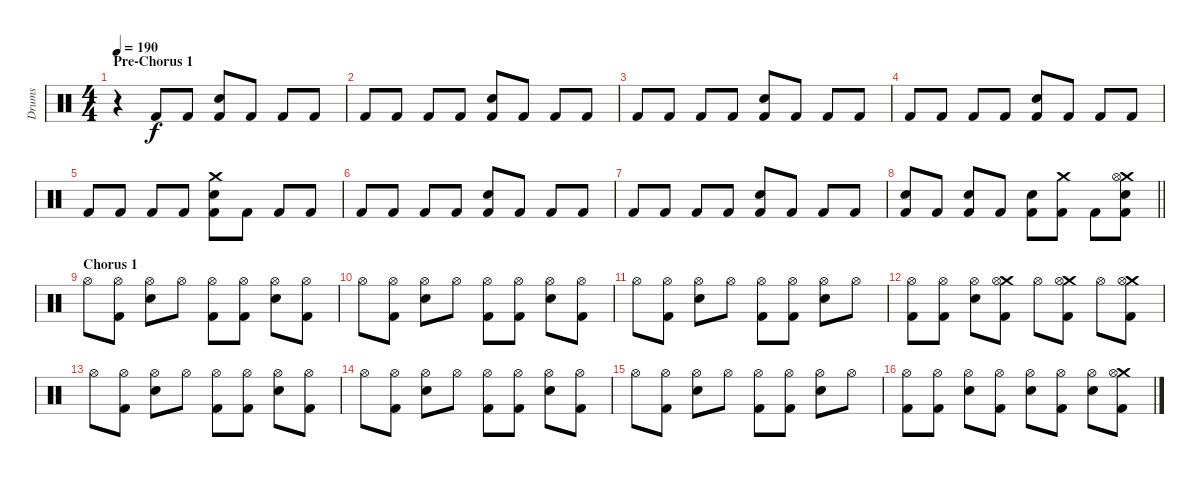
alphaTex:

\track ("Drums" "Drums") {instrument percussion}
\staff {score}
\articulation defaults
\ts (4 4)
\section ("" "Pre-Chorus 1")
\tempo 190
\clef neutral
\ks c
r.4{dy f} "Kick (hit) 2".8 "Kick (hit) 2".8 ("Kick (hit) 2" "Electric Snare (hit)").8 "Kick (hit) 2".8 "Kick (hit) 2".8 "Kick (hit) 2".8 |
"Kick (hit) 2".8 "Kick (hit) 2".8 "Kick (hit) 2".8 "Kick (hit) 2".8 ("Kick (hit) 2" "Electric Snare (hit)").8 "Kick (hit) 2".8 "Kick (hit) 2".8 "Kick (hit) 2".8 |
"Kick (hit) 2".8 "Kick (hit) 2".8 "Kick (hit) 2".8 "Kick (hit) 2".8 ("Kick (hit) 2" "Electric Snare (hit)").8 "Kick (hit) 2".8 "Kick (hit) 2".8 "Kick (hit) 2".8 |
"Kick (hit) 2".8 "Kick (hit) 2".8 "Kick (hit) 2".8 "Kick (hit) 2".8 ("Kick (hit) 2" "Electric Snare (hit)").8 "Kick (hit) 2".8 "Kick (hit) 2".8 "Kick (hit) 2".8 |
"Kick (hit) 2".8 "Kick (hit) 2".8 "Kick (hit) 2".8 "Kick (hit) 2".8 ("Crash medium (hit)" "Kick (hit) 2" "Electric Snare (hit)").8 "Kick (hit) 2".8 "Kick (hit) 2".8 "Kick (hit) 2".8 |
"Kick (hit) 2".8 "Kick (hit) 2".8 "Kick (hit) 2".8 "Kick (hit) 2".8 ("Kick (hit) 2" "Electric Snare (hit)").8 "Kick (hit) 2".8 "Kick (hit) 2".8 "Kick (hit) 2".8 |
"Kick (hit) 2".8 "Kick (hit) 2".8 "Kick (hit) 2".8 "Kick (hit) 2".8 ("Kick (hit) 2" "Electric Snare (hit)").8 "Kick (hit) 2".8 "Kick (hit) 2".8 "Kick (hit) 2".8 |
\barLineRight lightlight
("Kick (hit) 2" "Electric Snare (hit)").8 "Kick (hit) 2".8 ("Kick (hit) 2" "Electric Snare (hit)").8 "Kick (hit) 2".8 ("Kick (hit) 2" "Electric Snare (hit)").8 ("Crash medium (hit)" "Kick (hit) 2").8 "Kick (hit) 2".8 ("Crash medium (hit)" "Hi-Hat (open)" "Kick (hit) 2" "Electric Snare (hit)").8 |
\section ("" "Chorus 1")
"Hi-Hat (open)".8 ("Hi-Hat (open)" "Kick (hit) 2").8 ("Hi-Hat (open)" "Electric Snare (hit)").8 "Hi-Hat (open)".8 ("Hi-Hat (open)" "Kick (hit) 2").8 ("Hi-Hat (open)" "Kick (hit) 2").8 ("Hi-Hat (open)" "Electric Snare (hit)").8 ("Hi-Hat (open)" "Kick (hit) 2").8 |
"Hi-Hat (open)".8 ("Hi-Hat (open)" "Kick (hit) 2").8 ("Hi-Hat (open)" "Electric Snare (hit)").8 "Hi-Hat (open)".8 ("Hi-Hat (open)" "Kick (hit) 2").8 ("Hi-Hat (open)" "Kick (hit) 2").8 ("Hi-Hat (open)" "Electric Snare (hit)").8 ("Hi-Hat (open)" "Kick (hit) 2").8 |
"Hi-Hat (open)".8 ("Hi-Hat (open)" "Kick (hit) 2").8 ("Hi-Hat (open)" "Electric Snare (hit)").8 "Hi-Hat (open)".8 ("Hi-Hat (open)" "Kick (hit) 2").8 ("Hi-Hat (open)" "Kick (hit) 2").8 ("Hi-Hat (open)" "Electric Snare (hit)").8 "Hi-Hat (open)".8 |
("Hi-Hat (open)" "Kick (hit) 2").8 ("Hi-Hat (open)" "Kick (hit) 2").8 ("Hi-Hat (open)" "Electric Snare (hit)").8 ("Crash medium (hit)" "Hi-Hat (open)" "Kick (hit) 2").8 "Hi-Hat (open)".8 ("Crash medium (hit)" "Hi-Hat (open)" "Kick (hit) 2").8 "Hi-Hat (open)".8 ("Crash medium (hit)" "Hi-Hat (open)" "Kick (hit) 2").8 |
"Hi-Hat (open)".8 ("Hi-Hat (open)" "Kick (hit) 2").8 ("Hi-Hat (open)" "Electric Snare (hit)").8 "Hi-Hat (open)".8 ("Hi-Hat (open)" "Kick (hit) 2").8 ("Hi-Hat (open)" "Kick (hit) 2").8 ("Hi-Hat (open)" "Electric Snare (hit)").8 ("Hi-Hat (open)" "Kick (hit) 2").8 |
"Hi-Hat (open)".8 ("Hi-Hat (open)" "Kick (hit) 2").8 ("Hi-Hat (open)" "Electric Snare (hit)").8 "Hi-Hat (open)".8 ("Hi-Hat (open)" "Kick (hit) 2").8 ("Hi-Hat (open)" "Kick (hit) 2").8 ("Hi-Hat (open)" "Electric Snare (hit)").8 ("Hi-Hat (open)" "Kick (hit) 2").8 |
"Hi-Hat (open)".8 ("Hi-Hat (open)" "Kick (hit) 2").8 ("Hi-Hat (open)" "Electric Snare (hit)").8 "Hi-Hat (open)".8 ("Hi-Hat (open)" "Kick (hit) 2").8 ("Hi-Hat (open)" "Kick (hit) 2").8 ("Hi-Hat (open)" "Electric Snare (hit)").8 "Hi-Hat (open)".8 |
("Hi-Hat (open)" "Kick (hit) 2").8 ("Hi-Hat (open)" "Kick (hit) 2").8 ("Hi-Hat (open)" "Electric Snare (hit)").8 ("Hi-Hat (open)" "Kick (hit) 2").8 ("Hi-Hat (open)" "Electric Snare (hit)").8 ("Hi-Hat (open)" "Kick (hit) 2").8 ("Hi-Hat (open)" "Electric Snare (hit)").8 ("Crash medium (hit)" "Hi-Hat (open)" "Kick (hit) 2").8
